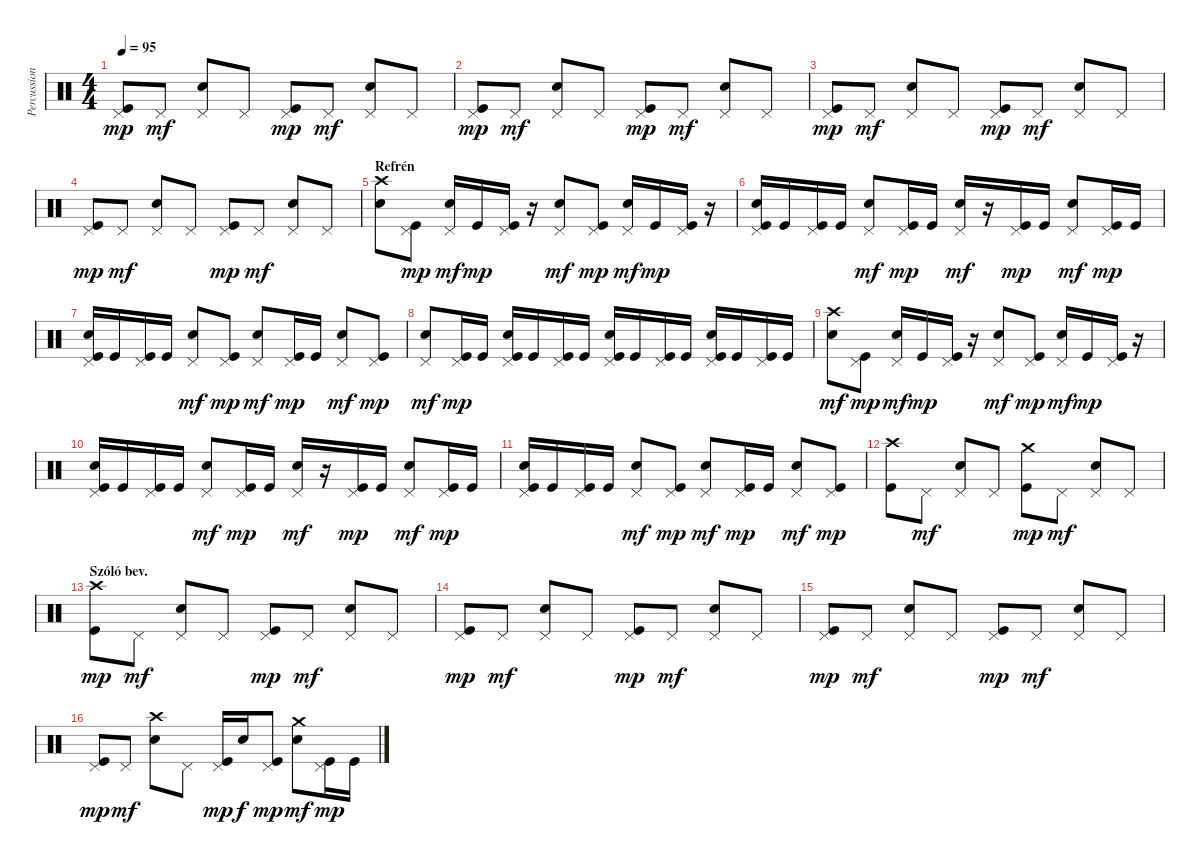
\track ("Percussion" "Percussion") {instrument percussion}
\staff {score}
\articulation defaults
\ts (4 4)
\tempo 95
\clef neutral
\ks c
("Pedal Hi-Hat (hit)" "Kick (hit)").8{dy mp} "Pedal Hi-Hat (hit)".8{dy mf} ("Pedal Hi-Hat (hit)" "Electric Snare (hit)").8 "Pedal Hi-Hat (hit)".8 ("Pedal Hi-Hat (hit)" "Kick (hit)").8{dy mp} "Pedal Hi-Hat (hit)".8{dy mf} ("Pedal Hi-Hat (hit)" "Electric Snare (hit)").8 "Pedal Hi-Hat (hit)".8 |
("Pedal Hi-Hat (hit)" "Kick (hit)").8{dy mp} "Pedal Hi-Hat (hit)".8{dy mf} ("Pedal Hi-Hat (hit)" "Electric Snare (hit)").8 "Pedal Hi-Hat (hit)".8 ("Pedal Hi-Hat (hit)" "Kick (hit)").8{dy mp} "Pedal Hi-Hat (hit)".8{dy mf} ("Pedal Hi-Hat (hit)" "Electric Snare (hit)").8 "Pedal Hi-Hat (hit)".8 |
("Pedal Hi-Hat (hit)" "Kick (hit)").8{dy mp} "Pedal Hi-Hat (hit)".8{dy mf} ("Pedal Hi-Hat (hit)" "Electric Snare (hit)").8 "Pedal Hi-Hat (hit)".8 ("Pedal Hi-Hat (hit)" "Kick (hit)").8{dy mp} "Pedal Hi-Hat (hit)".8{dy mf} ("Pedal Hi-Hat (hit)" "Electric Snare (hit)").8 "Pedal Hi-Hat (hit)".8 |
("Pedal Hi-Hat (hit)" "Kick (hit)").8{dy mp} "Pedal Hi-Hat (hit)".8{dy mf} ("Pedal Hi-Hat (hit)" "Electric Snare (hit)").8 "Pedal Hi-Hat (hit)".8 ("Pedal Hi-Hat (hit)" "Kick (hit)").8{dy mp} "Pedal Hi-Hat (hit)".8{dy mf} ("Pedal Hi-Hat (hit)" "Electric Snare (hit)").8 "Pedal Hi-Hat (hit)".8 |
\section ("" "Refrén")
("Crash high (hit)" "Electric Snare (hit)").8 ("Pedal Hi-Hat (hit)" "Kick (hit)").8{dy mp} ("Pedal Hi-Hat (hit)" "Electric Snare (hit)").16{dy mf} "Kick (hit)".16{dy mp} ("Pedal Hi-Hat (hit)" "Kick (hit)").16 r.16 ("Pedal Hi-Hat (hit)" "Electric Snare (hit)").8{dy mf} ("Pedal Hi-Hat (hit)" "Kick (hit)").8{dy mp} ("Pedal Hi-Hat (hit)" "Electric Snare (hit)").16{dy mf} "Kick (hit)".16{dy mp} ("Pedal Hi-Hat (hit)" "Kick (hit)").16 r.16 |
("Pedal Hi-Hat (hit)" "Kick (hit)" "Electric Snare (hit)").16 "Kick (hit)".16 ("Pedal Hi-Hat (hit)" "Kick (hit)").16 "Kick (hit)".16 ("Pedal Hi-Hat (hit)" "Electric Snare (hit)").8{dy mf} ("Pedal Hi-Hat (hit)" "Kick (hit)").16{dy mp} "Kick (hit)".16 ("Pedal Hi-Hat (hit)" "Electric Snare (hit)").16{dy mf} r.16 ("Pedal Hi-Hat (hit)" "Kick (hit)").16{dy mp} "Kick (hit)".16 ("Pedal Hi-Hat (hit)" "Electric Snare (hit)").8{dy mf} ("Pedal Hi-Hat (hit)" "Kick (hit)").16{dy mp} "Kick (hit)".16 |
("Pedal Hi-Hat (hit)" "Kick (hit)" "Electric Snare (hit)").16 "Kick (hit)".16 ("Pedal Hi-Hat (hit)" "Kick (hit)").16 "Kick (hit)".16 ("Pedal Hi-Hat (hit)" "Electric Snare (hit)").8{dy mf} ("Pedal Hi-Hat (hit)" "Kick (hit)").8{dy mp} ("Pedal Hi-Hat (hit)" "Electric Snare (hit)").8{dy mf} ("Pedal Hi-Hat (hit)" "Kick (hit)").16{dy mp} "Kick (hit)".16 ("Pedal Hi-Hat (hit)" "Electric Snare (hit)").8{dy mf} ("Pedal Hi-Hat (hit)" "Kick (hit)").8{dy mp} |
("Pedal Hi-Hat (hit)" "Electric Snare (hit)").8{dy mf} ("Pedal Hi-Hat (hit)" "Kick (hit)").16{dy mp} "Kick (hit)".16 ("Pedal Hi-Hat (hit)" "Kick (hit)" "Electric Snare (hit)").16 "Kick (hit)".16 ("Pedal Hi-Hat (hit)" "Kick (hit)").16 "Kick (hit)".16 ("Pedal Hi-Hat (hit)" "Kick (hit)" "Electric Snare (hit)").16 "Kick (hit)".16 ("Pedal Hi-Hat (hit)" "Kick (hit)").16 "Kick (hit)".16 ("Pedal Hi-Hat (hit)" "Kick (hit)" "Electric Snare (hit)").16 "Kick (hit)".16 ("Pedal Hi-Hat (hit)" "Kick (hit)").16 "Kick (hit)".16 |
("Crash high (hit)" "Electric Snare (hit)").8{dy mf} ("Pedal Hi-Hat (hit)" "Kick (hit)").8{dy mp} ("Pedal Hi-Hat (hit)" "Electric Snare (hit)").16{dy mf} "Kick (hit)".16{dy mp} ("Pedal Hi-Hat (hit)" "Kick (hit)").16 r.16 ("Pedal Hi-Hat (hit)" "Electric Snare (hit)").8{dy mf} ("Pedal Hi-Hat (hit)" "Kick (hit)").8{dy mp} ("Pedal Hi-Hat (hit)" "Electric Snare (hit)").16{dy mf} "Kick (hit)".16{dy mp} ("Pedal Hi-Hat (hit)" "Kick (hit)").16 r.16 |
("Pedal Hi-Hat (hit)" "Kick (hit)" "Electric Snare (hit)").16 "Kick (hit)".16 ("Pedal Hi-Hat (hit)" "Kick (hit)").16 "Kick (hit)".16 ("Pedal Hi-Hat (hit)" "Electric Snare (hit)").8{dy mf} ("Pedal Hi-Hat (hit)" "Kick (hit)").16{dy mp} "Kick (hit)".16 ("Pedal Hi-Hat (hit)" "Electric Snare (hit)").16{dy mf} r.16 ("Pedal Hi-Hat (hit)" "Kick (hit)").16{dy mp} "Kick (hit)".16 ("Pedal Hi-Hat (hit)" "Electric Snare (hit)").8{dy mf} ("Pedal Hi-Hat (hit)" "Kick (hit)").16{dy mp} "Kick (hit)".16 |
("Pedal Hi-Hat (hit)" "Kick (hit)" "Electric Snare (hit)").16 "Kick (hit)".16 ("Pedal Hi-Hat (hit)" "Kick (hit)").16 "Kick (hit)".16 ("Pedal Hi-Hat (hit)" "Electric Snare (hit)").8{dy mf} ("Pedal Hi-Hat (hit)" "Kick (hit)").8{dy mp} ("Pedal Hi-Hat (hit)" "Electric Snare (hit)").8{dy mf} ("Pedal Hi-Hat (hit)" "Kick (hit)").16{dy mp} "Kick (hit)".16 ("Pedal Hi-Hat (hit)" "Electric Snare (hit)").8{dy mf} ("Pedal Hi-Hat (hit)" "Kick (hit)").8{dy mp} |
("Crash high (hit)" "Kick (hit)").8 "Pedal Hi-Hat (hit)".8{dy mf} ("Pedal Hi-Hat (hit)" "Electric Snare (hit)").8 "Pedal Hi-Hat (hit)".8 ("Crash medium (hit)" "Kick (hit)").8{dy mp} "Pedal Hi-Hat (hit)".8{dy mf} ("Pedal Hi-Hat (hit)" "Electric Snare (hit)").8 "Pedal Hi-Hat (hit)".8 |
\section ("" "Szóló bev.")
("Crash high (hit)" "Kick (hit)").8{dy mp} "Pedal Hi-Hat (hit)".8{dy mf} ("Pedal Hi-Hat (hit)" "Electric Snare (hit)").8 "Pedal Hi-Hat (hit)".8 ("Pedal Hi-Hat (hit)" "Kick (hit)").8{dy mp} "Pedal Hi-Hat (hit)".8{dy mf} ("Pedal Hi-Hat (hit)" "Electric Snare (hit)").8 "Pedal Hi-Hat (hit)".8 |
("Pedal Hi-Hat (hit)" "Kick (hit)").8{dy mp} "Pedal Hi-Hat (hit)".8{dy mf} ("Pedal Hi-Hat (hit)" "Electric Snare (hit)").8 "Pedal Hi-Hat (hit)".8 ("Pedal Hi-Hat (hit)" "Kick (hit)").8{dy mp} "Pedal Hi-Hat (hit)".8{dy mf} ("Pedal Hi-Hat (hit)" "Electric Snare (hit)").8 "Pedal Hi-Hat (hit)".8 |
("Pedal Hi-Hat (hit)" "Kick (hit)").8{dy mp} "Pedal Hi-Hat (hit)".8{dy mf} ("Pedal Hi-Hat (hit)" "Electric Snare (hit)").8 "Pedal Hi-Hat (hit)".8 ("Pedal Hi-Hat (hit)" "Kick (hit)").8{dy mp} "Pedal Hi-Hat (hit)".8{dy mf} ("Pedal Hi-Hat (hit)" "Electric Snare (hit)").8 "Pedal Hi-Hat (hit)".8 |
("Pedal Hi-Hat (hit)" "Kick (hit)").8{dy mp} "Pedal Hi-Hat (hit)".8{dy mf} ("Crash high (hit)" "Electric Snare (hit)").8 "Pedal Hi-Hat (hit)".8 ("Pedal Hi-Hat (hit)" "Kick (hit)").16{dy mp} "Electric Snare (hit)".16{dy f} ("Pedal Hi-Hat (hit)" "Kick (hit)").8{dy mp} ("Crash medium (hit)" "Electric Snare (hit)").8{dy mf} ("Pedal Hi-Hat (hit)" "Kick (hit)").16{dy mp} "Kick (hit)".16
